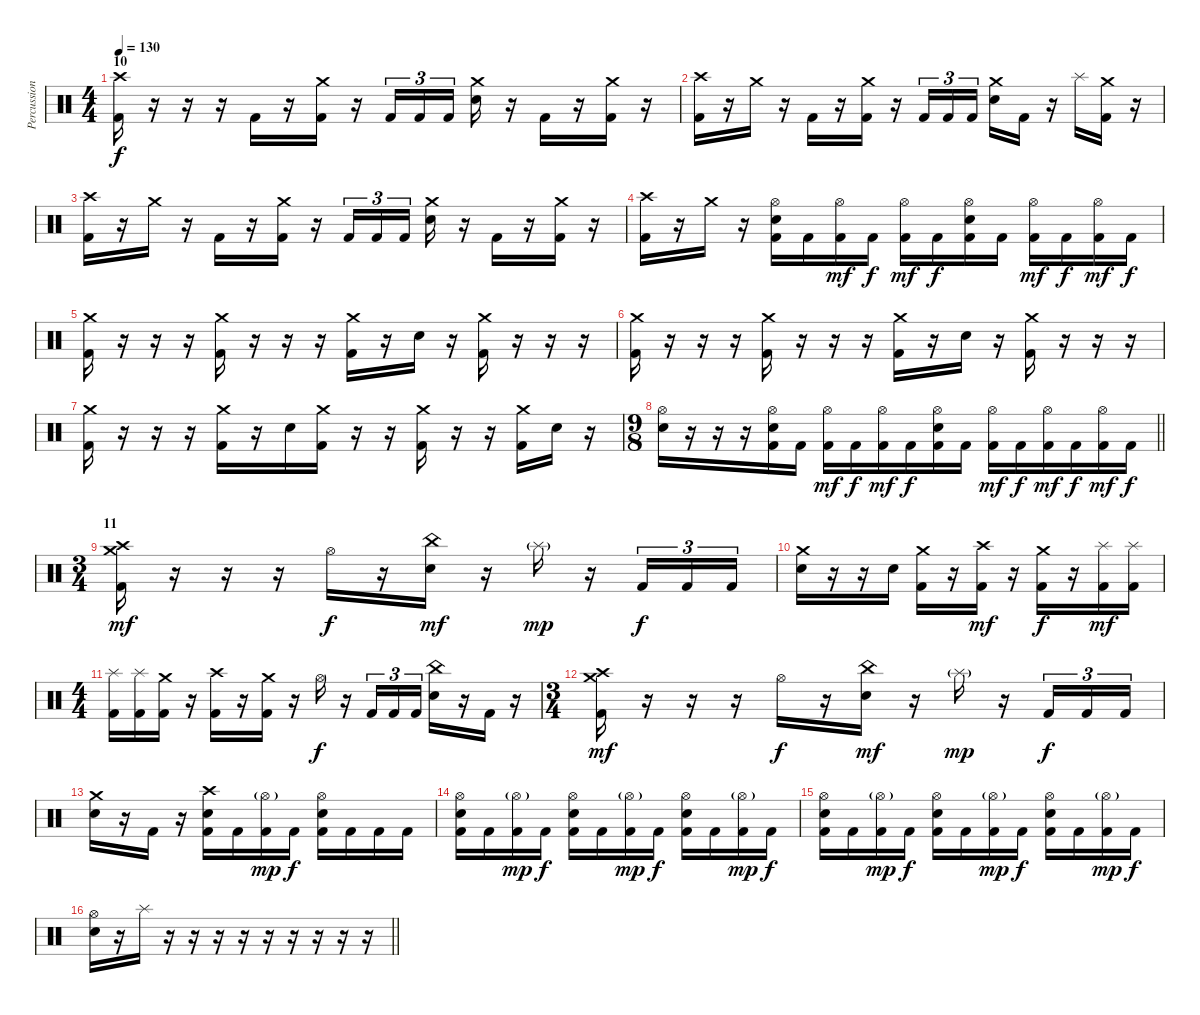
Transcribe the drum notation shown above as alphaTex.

\track ("Percussion" "Percussion") {instrument percussion}
\staff {score}
\articulation defaults
\ts (4 4)
\section ("" "10")
\tempo 130
\clef neutral
\ks c
("Crash high (hit)" "Kick (hit) 2").16{dy f} r.16 r.16 r.16 "Kick (hit) 2".16 r.16 ("Crash medium (hit)" "Kick (hit) 2").16 r.16 "Kick (hit) 2".16{tu (3 2)} "Kick (hit) 2".16{tu (3 2)} "Kick (hit) 2".16{tu (3 2) beam splitsecondary} ("Crash medium (hit)" "Snare (hit) 2").16 r.16 "Kick (hit) 2".16 r.16 ("Crash medium (hit)" "Kick (hit) 2").16 r.16 |
("Crash high (hit)" "Kick (hit) 2").16 r.16 "Crash medium (hit)".16 r.16 "Kick (hit) 2".16 r.16 ("Crash medium (hit)" "Kick (hit) 2").16 r.16 "Kick (hit) 2".16{tu (3 2)} "Kick (hit) 2".16{tu (3 2)} "Kick (hit) 2".16{tu (3 2) beam splitsecondary} ("Crash medium (hit)" "Snare (hit) 2").16 "Kick (hit) 2".16 r.16 "Splash (hit)".16 ("Crash medium (hit)" "Kick (hit) 2").16 r.16 |
("Crash high (hit)" "Kick (hit) 2").16 r.16 "Crash medium (hit)".16 r.16 "Kick (hit) 2".16 r.16 ("Crash medium (hit)" "Kick (hit) 2").16 r.16 "Kick (hit) 2".16{tu (3 2)} "Kick (hit) 2".16{tu (3 2)} "Kick (hit) 2".16{tu (3 2) beam splitsecondary} ("Crash medium (hit)" "Snare (hit) 2").16 r.16 "Kick (hit) 2".16 r.16 ("Crash medium (hit)" "Kick (hit) 2").16 r.16 |
("Crash high (hit)" "Kick (hit) 2").16 r.16 "Crash medium (hit)".16 r.16 ("Hi-Hat (open)" "Snare (hit) 2" "Kick (hit) 2").16 "Kick (hit) 2".16 ("Hi-Hat (open)" "Kick (hit) 2").16{dy mf} "Kick (hit) 2".16{dy f} ("Hi-Hat (open)" "Kick (hit) 2").16{dy mf} "Kick (hit) 2".16{dy f} ("Hi-Hat (open)" "Snare (hit) 2" "Kick (hit) 2").16 "Kick (hit) 2".16 ("Hi-Hat (open)" "Kick (hit) 2").16{dy mf} "Kick (hit) 2".16{dy f} ("Hi-Hat (open)" "Kick (hit) 2").16{dy mf} "Kick (hit) 2".16{dy f} |
("Crash medium (hit)" "Kick (hit) 2").16 r.16 r.16 r.16 ("Crash medium (hit)" "Kick (hit) 2").16 r.16 r.16 r.16 ("Crash medium (hit)" "Kick (hit) 2").16 r.16 "Snare (hit) 2".16 r.16 ("Crash medium (hit)" "Kick (hit) 2").16 r.16 r.16 r.16 |
("Crash medium (hit)" "Kick (hit) 2").16 r.16 r.16 r.16 ("Crash medium (hit)" "Kick (hit) 2").16 r.16 r.16 r.16 ("Crash medium (hit)" "Kick (hit) 2").16 r.16 "Snare (hit) 2".16 r.16 ("Crash medium (hit)" "Kick (hit) 2").16 r.16 r.16 r.16 |
("Crash medium (hit)" "Kick (hit) 2").16 r.16 r.16 r.16 ("Crash medium (hit)" "Kick (hit) 2").16 r.16 "Snare (hit) 2".16 ("Crash medium (hit)" "Kick (hit) 2").16 r.16 r.16 ("Crash medium (hit)" "Kick (hit) 2").16 r.16 r.16 ("Crash medium (hit)" "Kick (hit) 2").16 "Snare (hit) 2".16 r.16 |
\ts (9 8)
\barLineRight lightlight
("Hi-Hat (open)" "Snare (hit) 2").16 r.16 r.16 r.16 ("Hi-Hat (open)" "Snare (hit) 2" "Kick (hit) 2").16 "Kick (hit) 2".16 ("Hi-Hat (open)" "Kick (hit) 2").16{dy mf} "Kick (hit) 2".16{dy f} ("Hi-Hat (open)" "Kick (hit) 2").16{dy mf} "Kick (hit) 2".16{dy f} ("Hi-Hat (open)" "Snare (hit) 2" "Kick (hit) 2").16 "Kick (hit) 2".16 ("Hi-Hat (open)" "Kick (hit) 2").16{dy mf} "Kick (hit) 2".16{dy f} ("Hi-Hat (open)" "Kick (hit) 2").16{dy mf} "Kick (hit) 2".16{dy f} ("Hi-Hat (open)" "Kick (hit) 2").16{dy mf} "Kick (hit) 2".16{dy f} |
\ts (3 4)
\section ("" "11")
("Crash medium (hit)" "Crash high (hit)" "Kick (hit) 2").16{dy mf} r.16 r.16 r.16 "Hi-Hat (open)".16{dy f} r.16 ("China (hit)" "Snare (hit) 2").16{dy mf} r.16 "Splash (hit)"{g}.16{dy mp} r.16 "Kick (hit) 2".16{tu (3 2) dy f} "Kick (hit) 2".16{tu (3 2)} "Kick (hit) 2".16{tu (3 2)} |
("Crash medium (hit)" "Snare (hit) 2").16 r.16 r.16 "Snare (hit) 2".16 ("Crash medium (hit)" "Kick (hit) 2").16 r.16 ("Crash high (hit)" "Kick (hit) 2").16{dy mf} r.16 ("Crash medium (hit)" "Kick (hit) 2").16{dy f} r.16 ("Splash (hit)" "Kick (hit) 2").16{dy mf} ("Splash (hit)" "Kick (hit) 2").16 |
\ts (4 4)
("Splash (hit)" "Kick (hit) 2").16 ("Splash (hit)" "Kick (hit) 2").16 ("Crash medium (hit)" "Kick (hit) 2").16 r.16 ("Crash high (hit)" "Kick (hit) 2").16 r.16 ("Crash medium (hit)" "Kick (hit) 2").16 r.16 "Hi-Hat (open)".16{dy f} r.16 "Kick (hit) 2".16{tu (3 2)} "Kick (hit) 2".16{tu (3 2)} "Kick (hit) 2".16{tu (3 2)} ("China (hit)" "Snare (hit) 2").16 r.16 "Kick (hit) 2".16 r.16 |
\ts (3 4)
("Crash medium (hit)" "Crash high (hit)" "Kick (hit) 2").16{dy mf} r.16 r.16 r.16 "Hi-Hat (open)".16{dy f} r.16 ("China (hit)" "Snare (hit) 2").16{dy mf} r.16 "Splash (hit)"{g}.16{dy mp} r.16 "Kick (hit) 2".16{tu (3 2) dy f} "Kick (hit) 2".16{tu (3 2)} "Kick (hit) 2".16{tu (3 2)} |
("Crash medium (hit)" "Snare (hit) 2").16 r.16 "Kick (hit) 2".16 r.16 ("Crash high (hit)" "Snare (hit) 2" "Kick (hit) 2").16 "Kick (hit) 2".16 ("Hi-Hat (open)"{g} "Kick (hit) 2").16{dy mp} "Kick (hit) 2".16{dy f} ("Hi-Hat (open)" "Snare (hit) 2" "Kick (hit) 2").16 "Kick (hit) 2".16 "Kick (hit) 2".16 "Kick (hit) 2".16 |
("Hi-Hat (open)" "Snare (hit) 2" "Kick (hit) 2").16 "Kick (hit) 2".16 ("Hi-Hat (open)"{g} "Kick (hit) 2").16{dy mp} "Kick (hit) 2".16{dy f} ("Hi-Hat (open)" "Snare (hit) 2" "Kick (hit) 2").16 "Kick (hit) 2".16 ("Hi-Hat (open)"{g} "Kick (hit) 2").16{dy mp} "Kick (hit) 2".16{dy f} ("Hi-Hat (open)" "Snare (hit) 2" "Kick (hit) 2").16 "Kick (hit) 2".16 ("Hi-Hat (open)"{g} "Kick (hit) 2").16{dy mp} "Kick (hit) 2".16{dy f} |
("Hi-Hat (open)" "Snare (hit) 2" "Kick (hit) 2").16 "Kick (hit) 2".16 ("Hi-Hat (open)"{g} "Kick (hit) 2").16{dy mp} "Kick (hit) 2".16{dy f} ("Hi-Hat (open)" "Snare (hit) 2" "Kick (hit) 2").16 "Kick (hit) 2".16 ("Hi-Hat (open)"{g} "Kick (hit) 2").16{dy mp} "Kick (hit) 2".16{dy f} ("Hi-Hat (open)" "Snare (hit) 2" "Kick (hit) 2").16 "Kick (hit) 2".16 ("Hi-Hat (open)"{g} "Kick (hit) 2").16{dy mp} "Kick (hit) 2".16{dy f} |
\barLineRight lightlight
("Hi-Hat (open)" "Snare (hit) 2").16 r.16 "Splash (hit)".16 r.16 r.16 r.16 r.16 r.16 r.16 r.16 r.16 r.16
